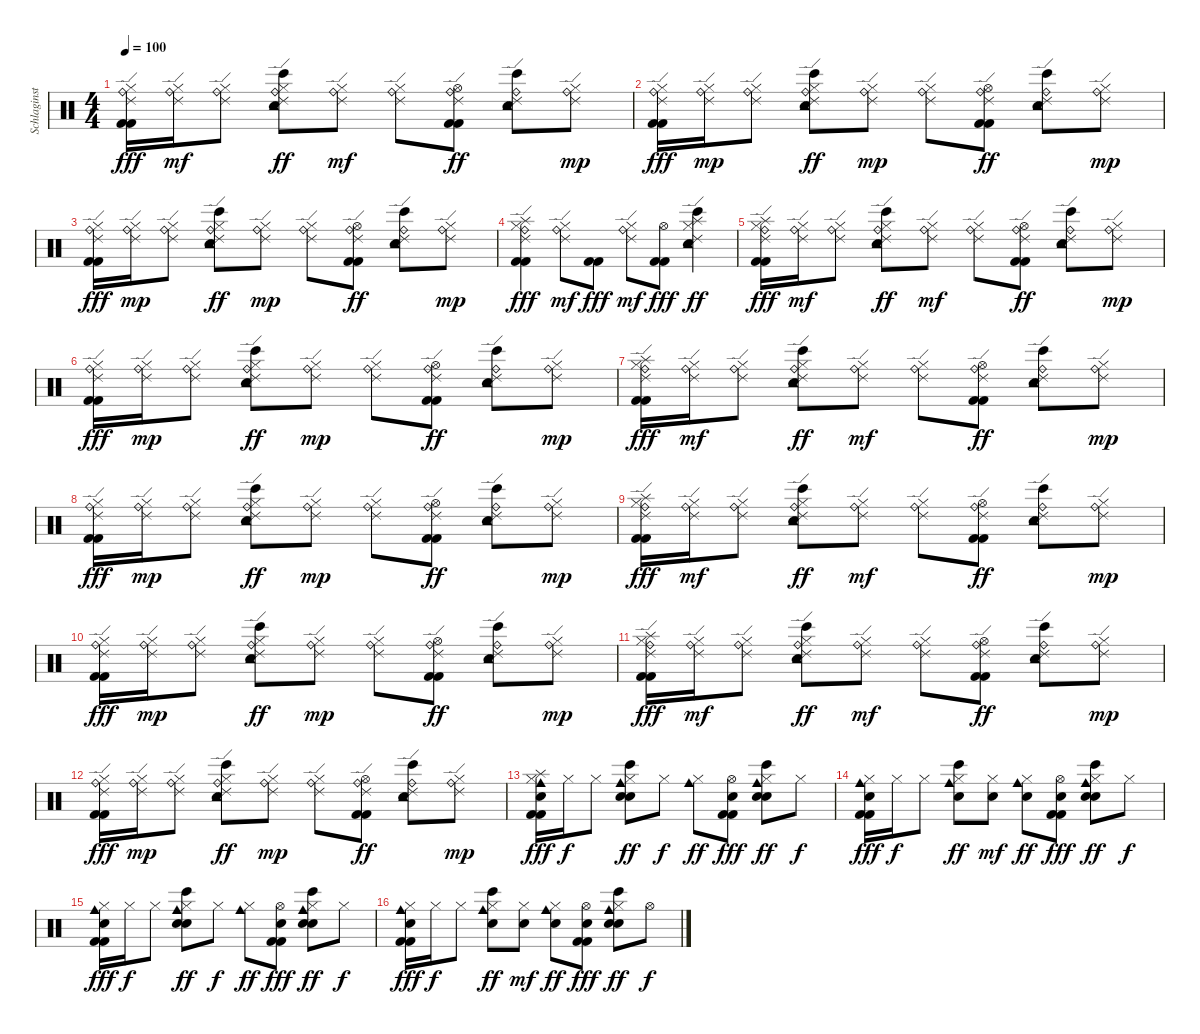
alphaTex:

\track ("Schlaginstrumente - Auswahl" "Schlaginst") {instrument percussion}
\staff {score}
\articulation defaults
\ts (4 4)
\tempo 100
\clef neutral
\ks c
("Ride (bell)" "Ride (edge) 2" "Hi-Hat (closed)" "Kick (hit) 2" "Kick (hit) 2").16{dy fff} ("Ride (bell)" "Ride (edge) 2" "Hi-Hat (closed)").16{dy mf} ("Ride (bell)" "Ride (edge) 2" "Hi-Hat (closed)").8 ("Snare (hit) 2" "Ride (bell)" "Ride (edge) 2" "Hi-Hat (closed)" "Bongo High (hit)" "Tambourine (hit)").8{dy ff} ("Ride (bell)" "Ride (edge) 2" "Hi-Hat (closed)").8{dy mf} ("Ride (bell)" "Ride (edge) 2" "Hi-Hat (closed)").8 ("Ride (bell)" "Ride (edge) 2" "Hi-Hat (open)" "Kick (hit) 2" "Kick (hit) 2").8{dy ff} ("Snare (hit) 2" "Ride (bell)" "Ride (edge) 2" "Bongo High (hit)" "Tambourine (hit)").8 ("Ride (bell)" "Ride (edge) 2" "Hi-Hat (closed)").8{dy mp} |
("Ride (bell)" "Ride (edge) 2" "Hi-Hat (closed)" "Kick (hit) 2" "Kick (hit) 2").16{dy fff} ("Ride (bell)" "Ride (edge) 2" "Hi-Hat (closed)").16{dy mp} ("Ride (bell)" "Ride (edge) 2" "Hi-Hat (closed)").8 ("Snare (hit) 2" "Ride (bell)" "Ride (edge) 2" "Hi-Hat (closed)" "Bongo High (hit)" "Tambourine (hit)").8{dy ff} ("Ride (bell)" "Ride (edge) 2" "Hi-Hat (closed)").8{dy mp} ("Ride (bell)" "Ride (edge) 2" "Hi-Hat (closed)").8 ("Ride (bell)" "Ride (edge) 2" "Hi-Hat (open)" "Kick (hit) 2" "Kick (hit) 2").8{dy ff} ("Snare (hit) 2" "Ride (bell)" "Ride (edge) 2" "Bongo High (hit)" "Tambourine (hit)").8 ("Ride (bell)" "Ride (edge) 2" "Hi-Hat (closed)").8{dy mp} |
("Ride (bell)" "Ride (edge) 2" "Hi-Hat (closed)" "Kick (hit) 2" "Kick (hit) 2").16{dy fff} ("Ride (bell)" "Ride (edge) 2" "Hi-Hat (closed)").16{dy mp} ("Ride (bell)" "Ride (edge) 2" "Hi-Hat (closed)").8 ("Snare (hit) 2" "Ride (bell)" "Ride (edge) 2" "Hi-Hat (closed)" "Bongo High (hit)" "Tambourine (hit)").8{dy ff} ("Ride (bell)" "Ride (edge) 2" "Hi-Hat (closed)").8{dy mp} ("Ride (bell)" "Ride (edge) 2" "Hi-Hat (closed)").8 ("Ride (bell)" "Ride (edge) 2" "Hi-Hat (open)" "Kick (hit) 2" "Kick (hit) 2").8{dy ff} ("Snare (hit) 2" "Ride (bell)" "Ride (edge) 2" "Bongo High (hit)" "Tambourine (hit)").8 ("Ride (bell)" "Ride (edge) 2" "Hi-Hat (closed)").8{dy mp} |
("Splash (hit)" "Ride (bell)" "Ride (edge) 2" "Hi-Hat (closed)" "Kick (hit) 2" "Kick (hit) 2").4{dy fff} ("Ride (bell)" "Ride (edge) 2" "Hi-Hat (closed)").8{dy mf} ("Kick (hit) 2" "Kick (hit) 2").8{dy fff} ("Ride (bell)" "Ride (edge) 2" "Hi-Hat (closed)").8{dy mf} ("Hi-Hat (open)" "Kick (hit) 2" "Kick (hit) 2").8{dy fff} ("Splash (hit)" "Snare (hit) 2" "Ride (edge) 2" "Hi-Hat (closed)" "Bongo High (hit)" "Tambourine (hit)").4{dy ff} |
("Splash (hit)" "Ride (bell)" "Ride (edge) 2" "Hi-Hat (closed)" "Kick (hit) 2" "Kick (hit) 2").16{dy fff volume 12} ("Ride (bell)" "Ride (edge) 2" "Hi-Hat (closed)").16{dy mf} ("Ride (bell)" "Ride (edge) 2" "Hi-Hat (closed)").8 ("Snare (hit) 2" "Ride (bell)" "Ride (edge) 2" "Hi-Hat (closed)" "Bongo High (hit)" "Tambourine (hit)").8{dy ff} ("Ride (bell)" "Ride (edge) 2" "Hi-Hat (closed)").8{dy mf} ("Ride (bell)" "Ride (edge) 2" "Hi-Hat (closed)").8 ("Ride (bell)" "Ride (edge) 2" "Hi-Hat (open)" "Kick (hit) 2" "Kick (hit) 2").8{dy ff} ("Snare (hit) 2" "Ride (bell)" "Ride (edge) 2" "Bongo High (hit)" "Tambourine (hit)").8 ("Ride (bell)" "Ride (edge) 2" "Hi-Hat (closed)").8{dy mp} |
("Ride (bell)" "Ride (edge) 2" "Hi-Hat (closed)" "Kick (hit) 2" "Kick (hit) 2").16{dy fff} ("Ride (bell)" "Ride (edge) 2" "Hi-Hat (closed)").16{dy mp} ("Ride (bell)" "Ride (edge) 2" "Hi-Hat (closed)").8 ("Snare (hit) 2" "Ride (bell)" "Ride (edge) 2" "Hi-Hat (closed)" "Bongo High (hit)" "Tambourine (hit)").8{dy ff} ("Ride (bell)" "Ride (edge) 2" "Hi-Hat (closed)").8{dy mp} ("Ride (bell)" "Ride (edge) 2" "Hi-Hat (closed)").8 ("Ride (bell)" "Ride (edge) 2" "Hi-Hat (open)" "Kick (hit) 2" "Kick (hit) 2").8{dy ff} ("Snare (hit) 2" "Ride (bell)" "Ride (edge) 2" "Bongo High (hit)" "Tambourine (hit)").8 ("Ride (bell)" "Ride (edge) 2" "Hi-Hat (closed)").8{dy mp} |
("Splash (hit)" "Ride (bell)" "Ride (edge) 2" "Hi-Hat (closed)" "Kick (hit) 2" "Kick (hit) 2").16{dy fff} ("Ride (bell)" "Ride (edge) 2" "Hi-Hat (closed)").16{dy mf} ("Ride (bell)" "Ride (edge) 2" "Hi-Hat (closed)").8 ("Snare (hit) 2" "Ride (bell)" "Ride (edge) 2" "Hi-Hat (closed)" "Bongo High (hit)" "Tambourine (hit)").8{dy ff} ("Ride (bell)" "Ride (edge) 2" "Hi-Hat (closed)").8{dy mf} ("Ride (bell)" "Ride (edge) 2" "Hi-Hat (closed)").8 ("Ride (bell)" "Ride (edge) 2" "Hi-Hat (open)" "Kick (hit) 2" "Kick (hit) 2").8{dy ff} ("Snare (hit) 2" "Ride (bell)" "Ride (edge) 2" "Bongo High (hit)" "Tambourine (hit)").8 ("Ride (bell)" "Ride (edge) 2" "Hi-Hat (closed)").8{dy mp} |
("Ride (bell)" "Ride (edge) 2" "Hi-Hat (closed)" "Kick (hit) 2" "Kick (hit) 2").16{dy fff} ("Ride (bell)" "Ride (edge) 2" "Hi-Hat (closed)").16{dy mp} ("Ride (bell)" "Ride (edge) 2" "Hi-Hat (closed)").8 ("Snare (hit) 2" "Ride (bell)" "Ride (edge) 2" "Hi-Hat (closed)" "Bongo High (hit)" "Tambourine (hit)").8{dy ff} ("Ride (bell)" "Ride (edge) 2" "Hi-Hat (closed)").8{dy mp} ("Ride (bell)" "Ride (edge) 2" "Hi-Hat (closed)").8 ("Ride (bell)" "Ride (edge) 2" "Hi-Hat (open)" "Kick (hit) 2" "Kick (hit) 2").8{dy ff} ("Snare (hit) 2" "Ride (bell)" "Ride (edge) 2" "Bongo High (hit)" "Tambourine (hit)").8 ("Ride (bell)" "Ride (edge) 2" "Hi-Hat (closed)").8{dy mp} |
("Splash (hit)" "Ride (bell)" "Ride (edge) 2" "Hi-Hat (closed)" "Kick (hit) 2" "Kick (hit) 2").16{dy fff} ("Ride (bell)" "Ride (edge) 2" "Hi-Hat (closed)").16{dy mf} ("Ride (bell)" "Ride (edge) 2" "Hi-Hat (closed)").8 ("Snare (hit) 2" "Ride (bell)" "Ride (edge) 2" "Hi-Hat (closed)" "Bongo High (hit)" "Tambourine (hit)").8{dy ff} ("Ride (bell)" "Ride (edge) 2" "Hi-Hat (closed)").8{dy mf} ("Ride (bell)" "Ride (edge) 2" "Hi-Hat (closed)").8 ("Ride (bell)" "Ride (edge) 2" "Hi-Hat (open)" "Kick (hit) 2" "Kick (hit) 2").8{dy ff} ("Snare (hit) 2" "Ride (bell)" "Ride (edge) 2" "Bongo High (hit)" "Tambourine (hit)").8 ("Ride (bell)" "Ride (edge) 2" "Hi-Hat (closed)").8{dy mp} |
("Ride (bell)" "Ride (edge) 2" "Hi-Hat (closed)" "Kick (hit) 2" "Kick (hit) 2").16{dy fff} ("Ride (bell)" "Ride (edge) 2" "Hi-Hat (closed)").16{dy mp} ("Ride (bell)" "Ride (edge) 2" "Hi-Hat (closed)").8 ("Snare (hit) 2" "Ride (bell)" "Ride (edge) 2" "Hi-Hat (closed)" "Bongo High (hit)" "Tambourine (hit)").8{dy ff} ("Ride (bell)" "Ride (edge) 2" "Hi-Hat (closed)").8{dy mp} ("Ride (bell)" "Ride (edge) 2" "Hi-Hat (closed)").8 ("Ride (bell)" "Ride (edge) 2" "Hi-Hat (open)" "Kick (hit) 2" "Kick (hit) 2").8{dy ff} ("Snare (hit) 2" "Ride (bell)" "Ride (edge) 2" "Bongo High (hit)" "Tambourine (hit)").8 ("Ride (bell)" "Ride (edge) 2" "Hi-Hat (closed)").8{dy mp} |
("Splash (hit)" "Ride (bell)" "Ride (edge) 2" "Hi-Hat (closed)" "Kick (hit) 2" "Kick (hit) 2").16{dy fff} ("Ride (bell)" "Ride (edge) 2" "Hi-Hat (closed)").16{dy mf} ("Ride (bell)" "Ride (edge) 2" "Hi-Hat (closed)").8 ("Snare (hit) 2" "Ride (bell)" "Ride (edge) 2" "Hi-Hat (closed)" "Bongo High (hit)" "Tambourine (hit)").8{dy ff} ("Ride (bell)" "Ride (edge) 2" "Hi-Hat (closed)").8{dy mf} ("Ride (bell)" "Ride (edge) 2" "Hi-Hat (closed)").8 ("Ride (bell)" "Ride (edge) 2" "Hi-Hat (open)" "Kick (hit) 2" "Kick (hit) 2").8{dy ff} ("Snare (hit) 2" "Ride (bell)" "Ride (edge) 2" "Bongo High (hit)" "Tambourine (hit)").8 ("Ride (bell)" "Ride (edge) 2" "Hi-Hat (closed)").8{dy mp} |
("Ride (bell)" "Ride (edge) 2" "Hi-Hat (closed)" "Kick (hit) 2" "Kick (hit) 2").16{dy fff} ("Ride (bell)" "Ride (edge) 2" "Hi-Hat (closed)").16{dy mp} ("Ride (bell)" "Ride (edge) 2" "Hi-Hat (closed)").8 ("Snare (hit) 2" "Ride (bell)" "Ride (edge) 2" "Hi-Hat (closed)" "Bongo High (hit)" "Tambourine (hit)").8{dy ff} ("Ride (bell)" "Ride (edge) 2" "Hi-Hat (closed)").8{dy mp} ("Ride (bell)" "Ride (edge) 2" "Hi-Hat (closed)").8 ("Ride (bell)" "Ride (edge) 2" "Hi-Hat (open)" "Kick (hit) 2" "Kick (hit) 2").8{dy ff} ("Snare (hit) 2" "Ride (bell)" "Ride (edge) 2" "Bongo High (hit)" "Tambourine (hit)").8 ("Ride (bell)" "Ride (edge) 2" "Hi-Hat (closed)").8{dy mp} |
("Splash (hit)" "Hand Clap (hit)" "Hi-Hat (closed)" "Cowbell medium (hit)" "Kick (hit) 2" "Kick (hit) 2").16{dy fff volume 10} "Hi-Hat (closed)".16{dy f} "Hi-Hat (closed)".8 ("Snare (hit) 2" "Hand Clap (hit)" "Hi-Hat (closed)" "Cowbell medium (hit)" "Bongo High (hit)").8{dy ff} "Hi-Hat (closed)".8{dy f} ("Hi-Hat (closed)" "Cowbell medium (hit)").8{dy ff} ("Hand Clap (hit)" "Hi-Hat (open)" "Kick (hit) 2" "Kick (hit) 2").8{dy fff} ("Snare (hit) 2" "Hand Clap (hit)" "Hi-Hat (closed)" "Cowbell medium (hit)" "Bongo High (hit)").8{dy ff} "Hi-Hat (closed)".8{dy f} |
("Hand Clap (hit)" "Hi-Hat (closed)" "Cowbell medium (hit)" "Kick (hit) 2" "Kick (hit) 2").16{dy fff} "Hi-Hat (closed)".16{dy f} "Hi-Hat (closed)".8 ("Snare (hit) 2" "Hi-Hat (closed)" "Cowbell medium (hit)" "Bongo High (hit)").8{dy ff} ("Hand Clap (hit)" "Hi-Hat (closed)").8{dy mf} ("Hand Clap (hit)" "Hi-Hat (closed)" "Cowbell medium (hit)").8{dy ff} ("Hand Clap (hit)" "Hi-Hat (open)" "Kick (hit) 2" "Kick (hit) 2").8{dy fff} ("Snare (hit) 2" "Hand Clap (hit)" "Hi-Hat (closed)" "Cowbell medium (hit)" "Bongo High (hit)").8{dy ff} "Hi-Hat (closed)".8{dy f} |
("Hand Clap (hit)" "Hi-Hat (closed)" "Cowbell medium (hit)" "Kick (hit) 2" "Kick (hit) 2").16{dy fff} "Hi-Hat (closed)".16{dy f} "Hi-Hat (closed)".8 ("Snare (hit) 2" "Hand Clap (hit)" "Hi-Hat (closed)" "Cowbell medium (hit)" "Bongo High (hit)").8{dy ff} "Hi-Hat (closed)".8{dy f} ("Hi-Hat (closed)" "Cowbell medium (hit)").8{dy ff} ("Hand Clap (hit)" "Hi-Hat (open)" "Kick (hit) 2" "Kick (hit) 2").8{dy fff} ("Snare (hit) 2" "Hand Clap (hit)" "Hi-Hat (closed)" "Cowbell medium (hit)" "Bongo High (hit)").8{dy ff} "Hi-Hat (closed)".8{dy f} |
("Hand Clap (hit)" "Hi-Hat (closed)" "Cowbell medium (hit)" "Kick (hit) 2" "Kick (hit) 2").16{dy fff} "Hi-Hat (closed)".16{dy f} "Hi-Hat (closed)".8 ("Snare (hit) 2" "Hi-Hat (closed)" "Cowbell medium (hit)" "Bongo High (hit)").8{dy ff} ("Hand Clap (hit)" "Hi-Hat (closed)").8{dy mf} ("Hand Clap (hit)" "Hi-Hat (closed)" "Cowbell medium (hit)").8{dy ff} ("Hand Clap (hit)" "Hi-Hat (open)" "Kick (hit) 2" "Kick (hit) 2").8{dy fff} ("Snare (hit) 2" "Hand Clap (hit)" "Hi-Hat (closed)" "Cowbell medium (hit)" "Bongo High (hit)").8{dy ff} "Hi-Hat (open)".8{dy f}
